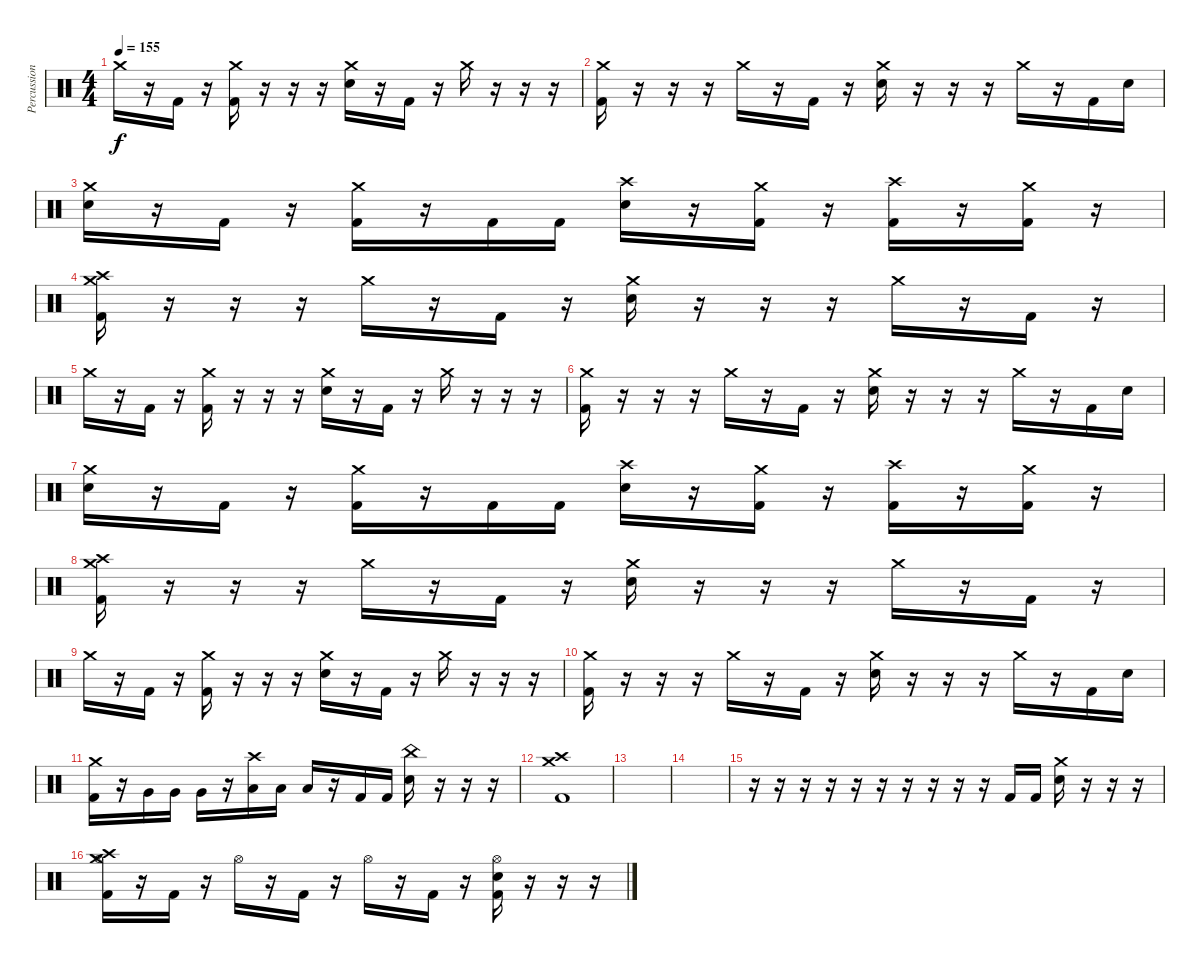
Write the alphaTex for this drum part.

\track ("Percussion" "Percussion") {instrument percussion}
\staff {score}
\articulation defaults
\ts (4 4)
\tempo 155
\clef neutral
\ks c "Crash medium (hit)".16{dy f}
r.16 "Kick (hit) 2".16 r.16 ("Crash medium (hit)" "Kick (hit) 2").16 r.16 r.16 r.16 ("Crash medium (hit)" "Snare (hit) 2").16 r.16 "Kick (hit) 2".16 r.16 "Crash medium (hit)".16 r.16 r.16 r.16 |
("Crash medium (hit)" "Kick (hit) 2").16 r.16 r.16 r.16 "Crash medium (hit)".16 r.16 "Kick (hit) 2".16 r.16 ("Crash medium (hit)" "Snare (hit) 2").16 r.16 r.16 r.16 "Crash medium (hit)".16 r.16 "Kick (hit) 2".16 "Snare (hit) 2".16 |
("Crash medium (hit)" "Snare (hit) 2").16 r.16 "Kick (hit) 2".16 r.16 ("Crash medium (hit)" "Kick (hit) 2").16 r.16 "Kick (hit) 2".16 "Kick (hit) 2".16 ("Crash high (hit)" "Snare (hit) 2").16 r.16 ("Crash medium (hit)" "Kick (hit) 2").16 r.16 ("Crash high (hit)" "Kick (hit) 2").16 r.16 ("Crash medium (hit)" "Kick (hit) 2").16 r.16 |
("Crash high (hit)" "Crash medium (hit)" "Kick (hit) 2").16 r.16 r.16 r.16 "Crash medium (hit)".16 r.16 "Kick (hit) 2".16 r.16 ("Crash medium (hit)" "Snare (hit) 2").16 r.16 r.16 r.16 "Crash medium (hit)".16 r.16 "Kick (hit) 2".16 r.16 |
"Crash medium (hit)".16 r.16 "Kick (hit) 2".16 r.16 ("Crash medium (hit)" "Kick (hit) 2").16 r.16 r.16 r.16 ("Crash medium (hit)" "Snare (hit) 2").16 r.16 "Kick (hit) 2".16 r.16 "Crash medium (hit)".16 r.16 r.16 r.16 |
("Crash medium (hit)" "Kick (hit) 2").16 r.16 r.16 r.16 "Crash medium (hit)".16 r.16 "Kick (hit) 2".16 r.16 ("Crash medium (hit)" "Snare (hit) 2").16 r.16 r.16 r.16 "Crash medium (hit)".16 r.16 "Kick (hit) 2".16 "Snare (hit) 2".16 |
("Crash medium (hit)" "Snare (hit) 2").16 r.16 "Kick (hit) 2".16 r.16 ("Crash medium (hit)" "Kick (hit) 2").16 r.16 "Kick (hit) 2".16 "Kick (hit) 2".16 ("Crash high (hit)" "Snare (hit) 2").16 r.16 ("Crash medium (hit)" "Kick (hit) 2").16 r.16 ("Crash high (hit)" "Kick (hit) 2").16 r.16 ("Crash medium (hit)" "Kick (hit) 2").16 r.16 |
("Crash high (hit)" "Crash medium (hit)" "Kick (hit) 2").16 r.16 r.16 r.16 "Crash medium (hit)".16 r.16 "Kick (hit) 2".16 r.16 ("Crash medium (hit)" "Snare (hit) 2").16 r.16 r.16 r.16 "Crash medium (hit)".16 r.16 "Kick (hit) 2".16 r.16 |
"Crash medium (hit)".16 r.16 "Kick (hit) 2".16 r.16 ("Crash medium (hit)" "Kick (hit) 2").16 r.16 r.16 r.16 ("Crash medium (hit)" "Snare (hit) 2").16 r.16 "Kick (hit) 2".16 r.16 "Crash medium (hit)".16 r.16 r.16 r.16 |
("Crash medium (hit)" "Kick (hit) 2").16 r.16 r.16 r.16 "Crash medium (hit)".16 r.16 "Kick (hit) 2".16 r.16 ("Crash medium (hit)" "Snare (hit) 2").16 r.16 r.16 r.16 "Crash medium (hit)".16 r.16 "Kick (hit) 2".16 "Snare (hit) 2".16 |
("Crash medium (hit)" "Kick (hit) 2").16 r.16 "Very Low Tom (hit)".16 "Very Low Tom (hit)".16 "Very Low Tom (hit)".16 r.16 ("Crash high (hit)" "Low Floor Tom (hit)").16 "Low Floor Tom (hit)".16 "Low Floor Tom (hit)".16 r.16 "Kick (hit) 2".16 "Kick (hit) 2".16 ("China (hit)" "Snare (hit) 2").16 r.16 r.16 r.16 |
("Crash high (hit)" "Crash medium (hit)" "Kick (hit) 2").1 |
|
|
r.16 r.16 r.16 r.16 r.16 r.16 r.16 r.16 r.16 r.16 "Kick (hit) 2".16 "Kick (hit) 2".16 ("Crash medium (hit)" "Snare (hit) 2").16 r.16 r.16 r.16 |
("Crash high (hit)" "Crash medium (hit)" "Hi-Hat (open)" "Kick (hit) 2").16 r.16 "Kick (hit) 2".16 r.16 "Hi-Hat (open)".16 r.16 "Kick (hit) 2".16 r.16 "Hi-Hat (open)".16 r.16 "Kick (hit) 2".16 r.16 ("Hi-Hat (open)" "Snare (hit) 2" "Kick (hit) 2").16 r.16 r.16 r.16
